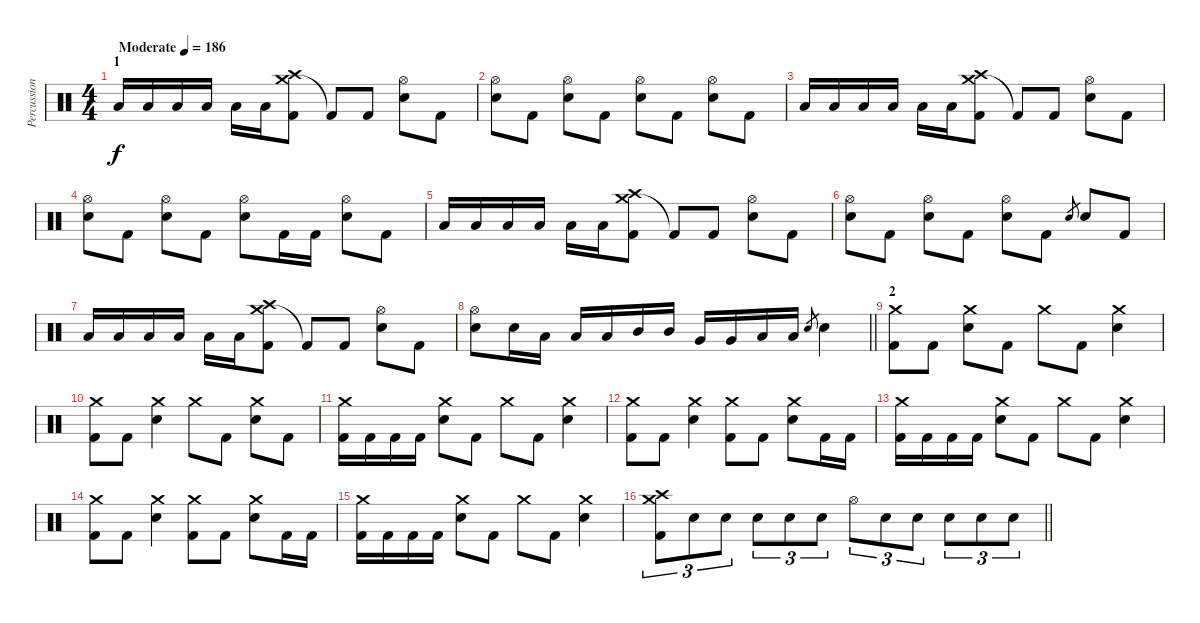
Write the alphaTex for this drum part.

\track ("Percussion" "Percussion") {instrument percussion}
\staff {score}
\articulation defaults
\ts (4 4)
\section ("" "1")
\tempo (186 "Moderate")
\clef neutral
\ks c "Low Floor Tom (hit)".16{dy f} "Low Floor Tom (hit)".16 "Low Floor Tom (hit)".16 "Low Floor Tom (hit)".16 "Low Floor Tom (hit)".16 "Low Floor Tom (hit)".16
("Crash medium (hit)" "Crash high (hit)" "Kick (hit) 2").8 "Kick (hit) 2"{t}.8 "Kick (hit) 2".8 ("Hi-Hat (open)" "Electric Snare (hit)").8 "Kick (hit) 2".8 |
("Hi-Hat (open)" "Electric Snare (hit)").8 "Kick (hit) 2".8 ("Hi-Hat (open)" "Electric Snare (hit)").8 "Kick (hit) 2".8 ("Hi-Hat (open)" "Electric Snare (hit)").8 "Kick (hit) 2".8 ("Hi-Hat (open)" "Electric Snare (hit)").8 "Kick (hit) 2".8 |
"Low Floor Tom (hit)".16 "Low Floor Tom (hit)".16 "Low Floor Tom (hit)".16 "Low Floor Tom (hit)".16 "Low Floor Tom (hit)".16 "Low Floor Tom (hit)".16 ("Crash medium (hit)" "Crash high (hit)" "Kick (hit) 2").8 "Kick (hit) 2"{t}.8 "Kick (hit) 2".8 ("Hi-Hat (open)" "Electric Snare (hit)").8 "Kick (hit) 2".8 |
("Hi-Hat (open)" "Electric Snare (hit)").8 "Kick (hit) 2".8 ("Hi-Hat (open)" "Electric Snare (hit)").8 "Kick (hit) 2".8 ("Hi-Hat (open)" "Electric Snare (hit)").8 "Kick (hit) 2".16 "Kick (hit) 2".16 ("Hi-Hat (open)" "Electric Snare (hit)").8 "Kick (hit) 2".8 |
"Low Floor Tom (hit)".16 "Low Floor Tom (hit)".16 "Low Floor Tom (hit)".16 "Low Floor Tom (hit)".16 "Low Floor Tom (hit)".16 "Low Floor Tom (hit)".16 ("Crash medium (hit)" "Crash high (hit)" "Kick (hit) 2").8 "Kick (hit) 2"{t}.8 "Kick (hit) 2".8 ("Hi-Hat (open)" "Electric Snare (hit)").8 "Kick (hit) 2".8 |
("Hi-Hat (open)" "Electric Snare (hit)").8 "Kick (hit) 2".8 ("Hi-Hat (open)" "Electric Snare (hit)").8 "Kick (hit) 2".8 ("Hi-Hat (open)" "Electric Snare (hit)").8 "Kick (hit) 2".8 "Electric Snare (hit)".8{gr} "Electric Snare (hit)".8 "Kick (hit) 2".8 |
"Low Floor Tom (hit)".16 "Low Floor Tom (hit)".16 "Low Floor Tom (hit)".16 "Low Floor Tom (hit)".16 "Low Floor Tom (hit)".16 "Low Floor Tom (hit)".16 ("Crash medium (hit)" "Crash high (hit)" "Kick (hit) 2").8 "Kick (hit) 2"{t}.8 "Kick (hit) 2".8 ("Hi-Hat (open)" "Electric Snare (hit)").8 "Kick (hit) 2".8 |
\barLineRight lightlight
("Hi-Hat (open)" "Electric Snare (hit)").8 "Electric Snare (hit)".16 "Low Tom (hit)".16 "Low Tom (hit)".16 "Low Tom (hit)".16 "Mid Tom (hit)".16 "Mid Tom (hit)".16 "Very Low Tom (hit)".16 "Very Low Tom (hit)".16 "Low Floor Tom (hit)".16 "Low Floor Tom (hit)".16 "Electric Snare (hit)".8{gr} "Electric Snare (hit)".4 |
\section ("" "2")
("Crash medium (hit)" "Kick (hit) 2").8 "Kick (hit) 2".8 ("Crash medium (hit)" "Electric Snare (hit)").8 "Kick (hit) 2".8 "Crash medium (hit)".8 "Kick (hit) 2".8 ("Crash medium (hit)" "Electric Snare (hit)").4 |
("Crash medium (hit)" "Kick (hit) 2").8 "Kick (hit) 2".8 ("Crash medium (hit)" "Electric Snare (hit)").4 "Crash medium (hit)".8 "Kick (hit) 2".8 ("Crash medium (hit)" "Electric Snare (hit)").8 "Kick (hit) 2".8 |
("Crash medium (hit)" "Kick (hit) 2").16 "Kick (hit) 2".16 "Kick (hit) 2".16 "Kick (hit) 2".16 ("Crash medium (hit)" "Electric Snare (hit)").8 "Kick (hit) 2".8 "Crash medium (hit)".8 "Kick (hit) 2".8 ("Crash medium (hit)" "Electric Snare (hit)").4 |
("Crash medium (hit)" "Kick (hit) 2").8 "Kick (hit) 2".8 ("Crash medium (hit)" "Electric Snare (hit)").4 ("Crash medium (hit)" "Kick (hit) 2").8 "Kick (hit) 2".8 ("Crash medium (hit)" "Electric Snare (hit)").8 "Kick (hit) 2".16 "Kick (hit) 2".16 |
("Crash medium (hit)" "Kick (hit) 2").16 "Kick (hit) 2".16 "Kick (hit) 2".16 "Kick (hit) 2".16 ("Crash medium (hit)" "Electric Snare (hit)").8 "Kick (hit) 2".8 "Crash medium (hit)".8 "Kick (hit) 2".8 ("Crash medium (hit)" "Electric Snare (hit)").4 |
("Crash medium (hit)" "Kick (hit) 2").8 "Kick (hit) 2".8 ("Crash medium (hit)" "Electric Snare (hit)").4 ("Crash medium (hit)" "Kick (hit) 2").8 "Kick (hit) 2".8 ("Crash medium (hit)" "Electric Snare (hit)").8 "Kick (hit) 2".16 "Kick (hit) 2".16 |
("Crash medium (hit)" "Kick (hit) 2").16 "Kick (hit) 2".16 "Kick (hit) 2".16 "Kick (hit) 2".16 ("Crash medium (hit)" "Electric Snare (hit)").8 "Kick (hit) 2".8 "Crash medium (hit)".8 "Kick (hit) 2".8 ("Crash medium (hit)" "Electric Snare (hit)").4 |
\barLineRight lightlight
("Crash medium (hit)" "Crash high (hit)" "Kick (hit) 2").8{tu (3 2)} "Electric Snare (hit)".8{tu (3 2)} "Electric Snare (hit)".8{tu (3 2)} "Electric Snare (hit)".8{tu (3 2)} "Electric Snare (hit)".8{tu (3 2)} "Electric Snare (hit)".8{tu (3 2)} "Hi-Hat (open)".8{tu (3 2)} "Electric Snare (hit)".8{tu (3 2)} "Electric Snare (hit)".8{tu (3 2)} "Electric Snare (hit)".8{tu (3 2)} "Electric Snare (hit)".8{tu (3 2)} "Electric Snare (hit)".8{tu (3 2)}
